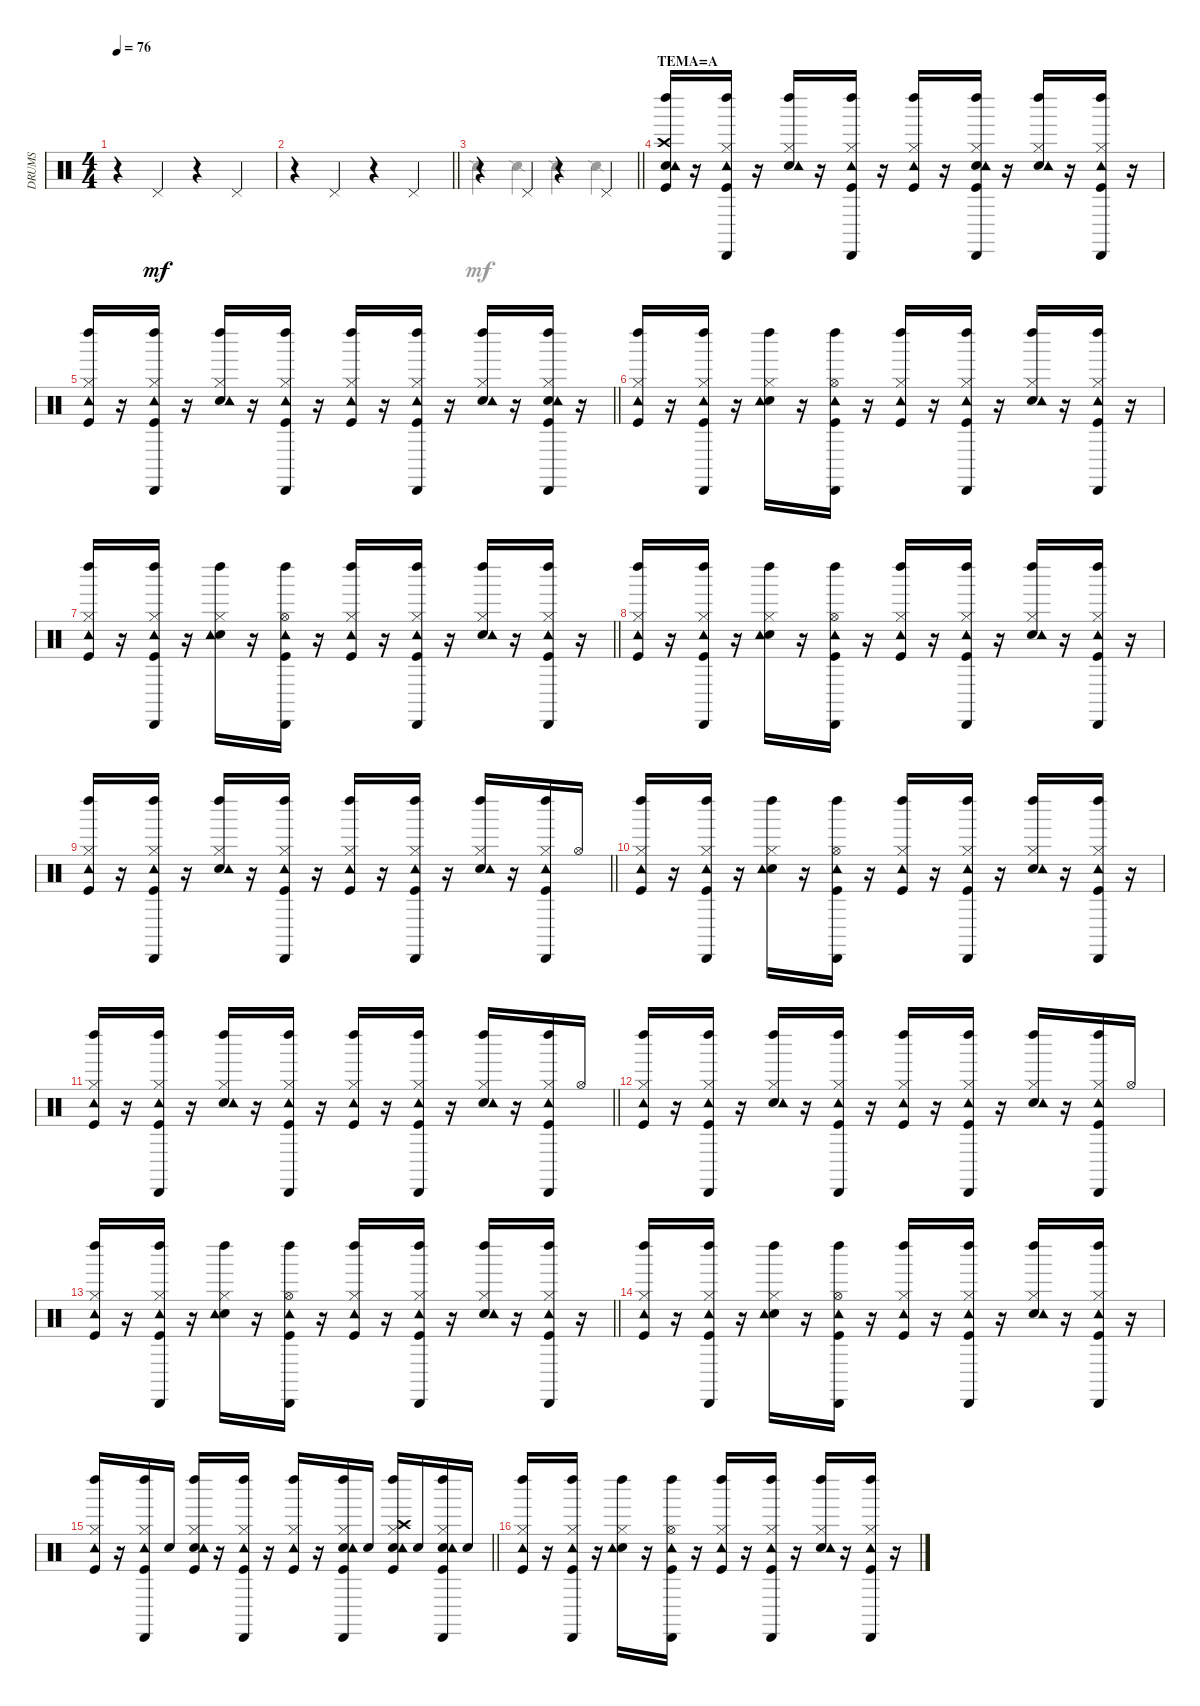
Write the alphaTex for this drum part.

\track ("DRUMS" "DRUMS") {instrument percussion}
\staff {score}
\articulation defaults
\voice
\ts (4 4)
\tempo 76
\clef neutral
\ks c
r.4{dy mf} "Pedal Hi-Hat (hit)".4 r.4 "Pedal Hi-Hat (hit)".4 |
\barLineRight lightlight
r.4 "Pedal Hi-Hat (hit)".4 r.4 "Pedal Hi-Hat (hit)".4 |
\barLineRight lightlight
r.4 "Pedal Hi-Hat (hit)".4 r.4 "Pedal Hi-Hat (hit)".4 |
\section ("" "TEMA=A")
("Kick (hit)" "Snare (hit) 2" "Crash high (hit)" "Tambourine (hit)" "Left Maraca (hit)").16 r.16 ("Kick (hit)" "Hi-Hat (closed)" "Tambourine (hit)" "Left Maraca (hit)" "Cabasa (hit)").16 r.16 ("Snare (hit) 2" "Hi-Hat (closed)" "Tambourine (hit)" "Left Maraca (hit)").16 r.16 ("Kick (hit)" "Hi-Hat (closed)" "Tambourine (hit)" "Left Maraca (hit)" "Cabasa (hit)").16 r.16 ("Kick (hit)" "Hi-Hat (closed)" "Tambourine (hit)" "Left Maraca (hit)").16 r.16 ("Kick (hit)" "Snare (hit) 2" "Hi-Hat (closed)" "Tambourine (hit)" "Left Maraca (hit)" "Cabasa (hit)").16 r.16 ("Snare (hit) 2" "Hi-Hat (closed)" "Tambourine (hit)" "Left Maraca (hit)").16 r.16 ("Kick (hit)" "Hi-Hat (closed)" "Tambourine (hit)" "Left Maraca (hit)" "Cabasa (hit)").16 r.16 |
\barLineRight lightlight
("Kick (hit)" "Hi-Hat (closed)" "Tambourine (hit)" "Left Maraca (hit)").16 r.16 ("Kick (hit)" "Hi-Hat (closed)" "Tambourine (hit)" "Left Maraca (hit)" "Cabasa (hit)").16 r.16 ("Snare (hit) 2" "Hi-Hat (closed)" "Tambourine (hit)" "Left Maraca (hit)").16 r.16 ("Kick (hit)" "Hi-Hat (closed)" "Tambourine (hit)" "Left Maraca (hit)" "Cabasa (hit)").16 r.16 ("Kick (hit)" "Hi-Hat (closed)" "Tambourine (hit)" "Left Maraca (hit)").16 r.16 ("Kick (hit)" "Hi-Hat (closed)" "Tambourine (hit)" "Left Maraca (hit)" "Cabasa (hit)").16 r.16 ("Snare (hit) 2" "Hi-Hat (closed)" "Tambourine (hit)" "Left Maraca (hit)").16 r.16 ("Kick (hit)" "Snare (hit) 2" "Hi-Hat (closed)" "Tambourine (hit)" "Left Maraca (hit)" "Cabasa (hit)").16 r.16 |
("Kick (hit)" "Hi-Hat (closed)" "Tambourine (hit)" "Left Maraca (hit)").16 r.16 ("Kick (hit)" "Hi-Hat (closed)" "Tambourine (hit)" "Left Maraca (hit)" "Cabasa (hit)").16 r.16 ("Snare (hit) 2" "Hi-Hat (closed)" "Tambourine (hit)" "Left Maraca (hit)").16 r.16 ("Kick (hit)" "Hi-Hat (open)" "Tambourine (hit)" "Left Maraca (hit)" "Cabasa (hit)").16 r.16 ("Kick (hit)" "Hi-Hat (closed)" "Tambourine (hit)" "Left Maraca (hit)").16 r.16 ("Kick (hit)" "Hi-Hat (closed)" "Tambourine (hit)" "Left Maraca (hit)" "Cabasa (hit)").16 r.16 ("Snare (hit) 2" "Hi-Hat (closed)" "Tambourine (hit)" "Left Maraca (hit)").16 r.16 ("Kick (hit)" "Hi-Hat (closed)" "Tambourine (hit)" "Left Maraca (hit)" "Cabasa (hit)").16 r.16 |
\barLineRight lightlight
("Kick (hit)" "Hi-Hat (closed)" "Tambourine (hit)" "Left Maraca (hit)").16 r.16 ("Kick (hit)" "Hi-Hat (closed)" "Tambourine (hit)" "Left Maraca (hit)" "Cabasa (hit)").16 r.16 ("Snare (hit) 2" "Hi-Hat (closed)" "Tambourine (hit)" "Left Maraca (hit)").16 r.16 ("Kick (hit)" "Hi-Hat (open)" "Tambourine (hit)" "Left Maraca (hit)" "Cabasa (hit)").16 r.16 ("Kick (hit)" "Hi-Hat (closed)" "Tambourine (hit)" "Left Maraca (hit)").16 r.16 ("Kick (hit)" "Hi-Hat (closed)" "Tambourine (hit)" "Left Maraca (hit)" "Cabasa (hit)").16 r.16 ("Snare (hit) 2" "Hi-Hat (closed)" "Tambourine (hit)" "Left Maraca (hit)").16 r.16 ("Kick (hit)" "Hi-Hat (closed)" "Tambourine (hit)" "Left Maraca (hit)" "Cabasa (hit)").16 r.16 |
("Kick (hit)" "Hi-Hat (closed)" "Tambourine (hit)" "Left Maraca (hit)").16 r.16 ("Kick (hit)" "Hi-Hat (closed)" "Tambourine (hit)" "Left Maraca (hit)" "Cabasa (hit)").16 r.16 ("Snare (hit) 2" "Hi-Hat (closed)" "Tambourine (hit)" "Left Maraca (hit)").16 r.16 ("Kick (hit)" "Hi-Hat (open)" "Tambourine (hit)" "Left Maraca (hit)" "Cabasa (hit)").16 r.16 ("Kick (hit)" "Hi-Hat (closed)" "Tambourine (hit)" "Left Maraca (hit)").16 r.16 ("Kick (hit)" "Hi-Hat (closed)" "Tambourine (hit)" "Left Maraca (hit)" "Cabasa (hit)").16 r.16 ("Snare (hit) 2" "Hi-Hat (closed)" "Tambourine (hit)" "Left Maraca (hit)").16 r.16 ("Kick (hit)" "Hi-Hat (closed)" "Tambourine (hit)" "Left Maraca (hit)" "Cabasa (hit)").16 r.16 |
\barLineRight lightlight
("Kick (hit)" "Hi-Hat (closed)" "Tambourine (hit)" "Left Maraca (hit)").16 r.16 ("Kick (hit)" "Hi-Hat (closed)" "Tambourine (hit)" "Left Maraca (hit)" "Cabasa (hit)").16 r.16 ("Snare (hit) 2" "Hi-Hat (closed)" "Tambourine (hit)" "Left Maraca (hit)").16 r.16 ("Kick (hit)" "Hi-Hat (closed)" "Tambourine (hit)" "Left Maraca (hit)" "Cabasa (hit)").16 r.16 ("Kick (hit)" "Hi-Hat (closed)" "Tambourine (hit)" "Left Maraca (hit)").16 r.16 ("Kick (hit)" "Hi-Hat (closed)" "Tambourine (hit)" "Left Maraca (hit)" "Cabasa (hit)").16 r.16 ("Snare (hit) 2" "Hi-Hat (closed)" "Tambourine (hit)" "Left Maraca (hit)").16 r.16 ("Kick (hit)" "Hi-Hat (closed)" "Tambourine (hit)" "Left Maraca (hit)" "Cabasa (hit)").16 "Hi-Hat (open)".16 |
("Kick (hit)" "Hi-Hat (closed)" "Tambourine (hit)" "Left Maraca (hit)").16 r.16 ("Kick (hit)" "Hi-Hat (closed)" "Tambourine (hit)" "Left Maraca (hit)" "Cabasa (hit)").16 r.16 ("Snare (hit) 2" "Hi-Hat (closed)" "Tambourine (hit)" "Left Maraca (hit)").16 r.16 ("Kick (hit)" "Hi-Hat (open)" "Tambourine (hit)" "Left Maraca (hit)" "Cabasa (hit)").16 r.16 ("Kick (hit)" "Hi-Hat (closed)" "Tambourine (hit)" "Left Maraca (hit)").16 r.16 ("Kick (hit)" "Hi-Hat (closed)" "Tambourine (hit)" "Left Maraca (hit)" "Cabasa (hit)").16 r.16 ("Snare (hit) 2" "Hi-Hat (closed)" "Tambourine (hit)" "Left Maraca (hit)").16 r.16 ("Kick (hit)" "Hi-Hat (closed)" "Tambourine (hit)" "Left Maraca (hit)" "Cabasa (hit)").16 r.16 |
\barLineRight lightlight
("Kick (hit)" "Hi-Hat (closed)" "Tambourine (hit)" "Left Maraca (hit)").16 r.16 ("Kick (hit)" "Hi-Hat (closed)" "Tambourine (hit)" "Left Maraca (hit)" "Cabasa (hit)").16 r.16 ("Snare (hit) 2" "Hi-Hat (closed)" "Tambourine (hit)" "Left Maraca (hit)").16 r.16 ("Kick (hit)" "Hi-Hat (closed)" "Tambourine (hit)" "Left Maraca (hit)" "Cabasa (hit)").16 r.16 ("Kick (hit)" "Hi-Hat (closed)" "Tambourine (hit)" "Left Maraca (hit)").16 r.16 ("Kick (hit)" "Hi-Hat (closed)" "Tambourine (hit)" "Left Maraca (hit)" "Cabasa (hit)").16 r.16 ("Snare (hit) 2" "Hi-Hat (closed)" "Tambourine (hit)" "Left Maraca (hit)").16 r.16 ("Kick (hit)" "Hi-Hat (closed)" "Tambourine (hit)" "Left Maraca (hit)" "Cabasa (hit)").16 "Hi-Hat (open)".16 |
("Kick (hit)" "Hi-Hat (closed)" "Tambourine (hit)" "Left Maraca (hit)").16 r.16 ("Kick (hit)" "Hi-Hat (closed)" "Tambourine (hit)" "Left Maraca (hit)" "Cabasa (hit)").16 r.16 ("Snare (hit) 2" "Hi-Hat (closed)" "Tambourine (hit)" "Left Maraca (hit)").16 r.16 ("Kick (hit)" "Hi-Hat (closed)" "Tambourine (hit)" "Left Maraca (hit)" "Cabasa (hit)").16 r.16 ("Kick (hit)" "Hi-Hat (closed)" "Tambourine (hit)" "Left Maraca (hit)").16 r.16 ("Kick (hit)" "Hi-Hat (closed)" "Tambourine (hit)" "Left Maraca (hit)" "Cabasa (hit)").16 r.16 ("Snare (hit) 2" "Hi-Hat (closed)" "Tambourine (hit)" "Left Maraca (hit)").16 r.16 ("Kick (hit)" "Hi-Hat (closed)" "Tambourine (hit)" "Left Maraca (hit)" "Cabasa (hit)").16 "Hi-Hat (open)".16 |
\barLineRight lightlight
("Kick (hit)" "Hi-Hat (closed)" "Tambourine (hit)" "Left Maraca (hit)").16 r.16 ("Kick (hit)" "Hi-Hat (closed)" "Tambourine (hit)" "Left Maraca (hit)" "Cabasa (hit)").16 r.16 ("Snare (hit) 2" "Hi-Hat (closed)" "Tambourine (hit)" "Left Maraca (hit)").16 r.16 ("Kick (hit)" "Hi-Hat (open)" "Tambourine (hit)" "Left Maraca (hit)" "Cabasa (hit)").16 r.16 ("Kick (hit)" "Hi-Hat (closed)" "Tambourine (hit)" "Left Maraca (hit)").16 r.16 ("Kick (hit)" "Hi-Hat (closed)" "Tambourine (hit)" "Left Maraca (hit)" "Cabasa (hit)").16 r.16 ("Snare (hit) 2" "Hi-Hat (closed)" "Tambourine (hit)" "Left Maraca (hit)").16 r.16 ("Kick (hit)" "Hi-Hat (closed)" "Tambourine (hit)" "Left Maraca (hit)" "Cabasa (hit)").16 r.16 |
("Kick (hit)" "Hi-Hat (closed)" "Tambourine (hit)" "Left Maraca (hit)").16 r.16 ("Kick (hit)" "Hi-Hat (closed)" "Tambourine (hit)" "Left Maraca (hit)" "Cabasa (hit)").16 r.16 ("Snare (hit) 2" "Hi-Hat (closed)" "Tambourine (hit)" "Left Maraca (hit)").16 r.16 ("Kick (hit)" "Hi-Hat (open)" "Tambourine (hit)" "Left Maraca (hit)" "Cabasa (hit)").16 r.16 ("Kick (hit)" "Hi-Hat (closed)" "Tambourine (hit)" "Left Maraca (hit)").16 r.16 ("Kick (hit)" "Hi-Hat (closed)" "Tambourine (hit)" "Left Maraca (hit)" "Cabasa (hit)").16 r.16 ("Snare (hit) 2" "Hi-Hat (closed)" "Tambourine (hit)" "Left Maraca (hit)").16 r.16 ("Kick (hit)" "Hi-Hat (closed)" "Tambourine (hit)" "Left Maraca (hit)" "Cabasa (hit)").16 r.16 |
\barLineRight lightlight
("Kick (hit)" "Hi-Hat (closed)" "Tambourine (hit)" "Left Maraca (hit)").16 r.16 ("Kick (hit)" "Hi-Hat (closed)" "Tambourine (hit)" "Left Maraca (hit)" "Cabasa (hit)").16 "Snare (hit) 2".16 ("Kick (hit)" "Snare (hit) 2" "Hi-Hat (closed)" "Tambourine (hit)" "Left Maraca (hit)").16 r.16 ("Kick (hit)" "Hi-Hat (closed)" "Tambourine (hit)" "Left Maraca (hit)" "Cabasa (hit)").16 r.16 ("Kick (hit)" "Hi-Hat (closed)" "Tambourine (hit)" "Left Maraca (hit)").16 r.16 ("Kick (hit)" "Snare (hit) 2" "Hi-Hat (closed)" "Tambourine (hit)" "Left Maraca (hit)" "Cabasa (hit)").16 "Snare (hit) 2".16 ("Kick (hit)" "Snare (hit) 2" "Hi-Hat (closed)" "Crash high (hit)" "Tambourine (hit)" "Left Maraca (hit)").16 "Snare (hit) 2".16 ("Kick (hit)" "Snare (hit) 2" "Hi-Hat (closed)" "Tambourine (hit)" "Left Maraca (hit)" "Cabasa (hit)").16 "Snare (hit) 2".16 |
("Kick (hit)" "Hi-Hat (closed)" "Tambourine (hit)" "Left Maraca (hit)").16 r.16 ("Kick (hit)" "Hi-Hat (closed)" "Tambourine (hit)" "Left Maraca (hit)" "Cabasa (hit)").16 r.16 ("Snare (hit) 2" "Hi-Hat (closed)" "Tambourine (hit)" "Left Maraca (hit)").16 r.16 ("Kick (hit)" "Hi-Hat (open)" "Tambourine (hit)" "Left Maraca (hit)" "Cabasa (hit)").16 r.16 ("Kick (hit)" "Hi-Hat (closed)" "Tambourine (hit)" "Left Maraca (hit)").16 r.16 ("Kick (hit)" "Hi-Hat (closed)" "Tambourine (hit)" "Left Maraca (hit)" "Cabasa (hit)").16 r.16 ("Snare (hit) 2" "Hi-Hat (closed)" "Tambourine (hit)" "Left Maraca (hit)").16 r.16 ("Kick (hit)" "Hi-Hat (closed)" "Tambourine (hit)" "Left Maraca (hit)" "Cabasa (hit)").16 r.16
\voice
\clef neutral
\ottava regular
\simile none
\ks c
|
\barLineRight lightlight
|
\barLineRight lightlight "Snare (side stick) 2".4 "Snare (side stick) 2".4 "Snare (side stick) 2".4 "Snare (side stick) 2".4
|
|
\barLineRight lightlight
|
|
\barLineRight lightlight
|
|
\barLineRight lightlight
|
|
\barLineRight lightlight
|
|
\barLineRight lightlight
|
|
\barLineRight lightlight
|
